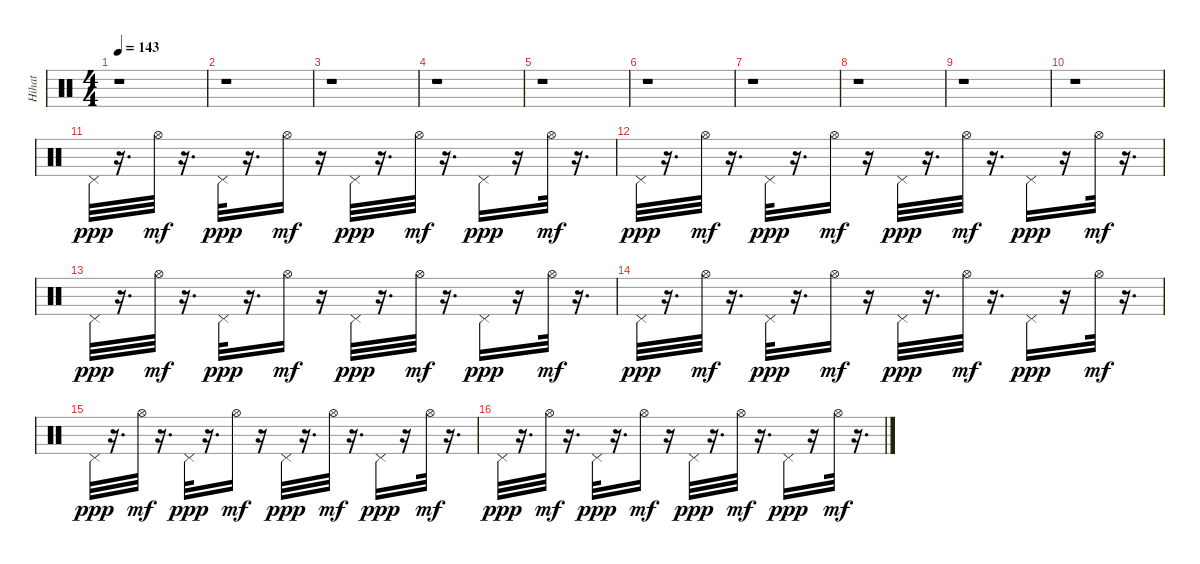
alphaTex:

\track ("Hihat    " "Hihat    ") {instrument percussion}
\staff {score}
\articulation defaults
\ts (4 4)
\tempo 143
\clef neutral
\ks c
r.1{dy ppp} |
r.1 |
r.1 |
r.1 |
r.1 |
r.1 |
r.1 |
r.1 |
r.1 |
r.1 |
"Pedal Hi-Hat (hit)".32 r.16{d} "Hi-Hat (open)".32{dy mf} r.16{d} "Pedal Hi-Hat (hit)".32{dy ppp} r.16{d} "Hi-Hat (open)".16{dy mf} r.16 "Pedal Hi-Hat (hit)".32{dy ppp} r.16{d} "Hi-Hat (open)".32{dy mf} r.16{d} "Pedal Hi-Hat (hit)".16{dy ppp} r.16 "Hi-Hat (open)".32{dy mf} r.16{d} |
"Pedal Hi-Hat (hit)".32{dy ppp} r.16{d} "Hi-Hat (open)".32{dy mf} r.16{d} "Pedal Hi-Hat (hit)".32{dy ppp} r.16{d} "Hi-Hat (open)".16{dy mf} r.16 "Pedal Hi-Hat (hit)".32{dy ppp} r.16{d} "Hi-Hat (open)".32{dy mf} r.16{d} "Pedal Hi-Hat (hit)".16{dy ppp} r.16 "Hi-Hat (open)".32{dy mf} r.16{d} |
"Pedal Hi-Hat (hit)".32{dy ppp} r.16{d} "Hi-Hat (open)".32{dy mf} r.16{d} "Pedal Hi-Hat (hit)".32{dy ppp} r.16{d} "Hi-Hat (open)".16{dy mf} r.16 "Pedal Hi-Hat (hit)".32{dy ppp} r.16{d} "Hi-Hat (open)".32{dy mf} r.16{d} "Pedal Hi-Hat (hit)".16{dy ppp} r.16 "Hi-Hat (open)".32{dy mf} r.16{d} |
"Pedal Hi-Hat (hit)".32{dy ppp} r.16{d} "Hi-Hat (open)".32{dy mf} r.16{d} "Pedal Hi-Hat (hit)".32{dy ppp} r.16{d} "Hi-Hat (open)".16{dy mf} r.16 "Pedal Hi-Hat (hit)".32{dy ppp} r.16{d} "Hi-Hat (open)".32{dy mf} r.16{d} "Pedal Hi-Hat (hit)".16{dy ppp} r.16 "Hi-Hat (open)".32{dy mf} r.16{d} |
"Pedal Hi-Hat (hit)".32{dy ppp} r.16{d} "Hi-Hat (open)".32{dy mf} r.16{d} "Pedal Hi-Hat (hit)".32{dy ppp} r.16{d} "Hi-Hat (open)".16{dy mf} r.16 "Pedal Hi-Hat (hit)".32{dy ppp} r.16{d} "Hi-Hat (open)".32{dy mf} r.16{d} "Pedal Hi-Hat (hit)".16{dy ppp} r.16 "Hi-Hat (open)".32{dy mf} r.16{d} |
"Pedal Hi-Hat (hit)".32{dy ppp} r.16{d} "Hi-Hat (open)".32{dy mf} r.16{d} "Pedal Hi-Hat (hit)".32{dy ppp} r.16{d} "Hi-Hat (open)".16{dy mf} r.16 "Pedal Hi-Hat (hit)".32{dy ppp} r.16{d} "Hi-Hat (open)".32{dy mf} r.16{d} "Pedal Hi-Hat (hit)".16{dy ppp} r.16 "Hi-Hat (open)".32{dy mf} r.16{d}
